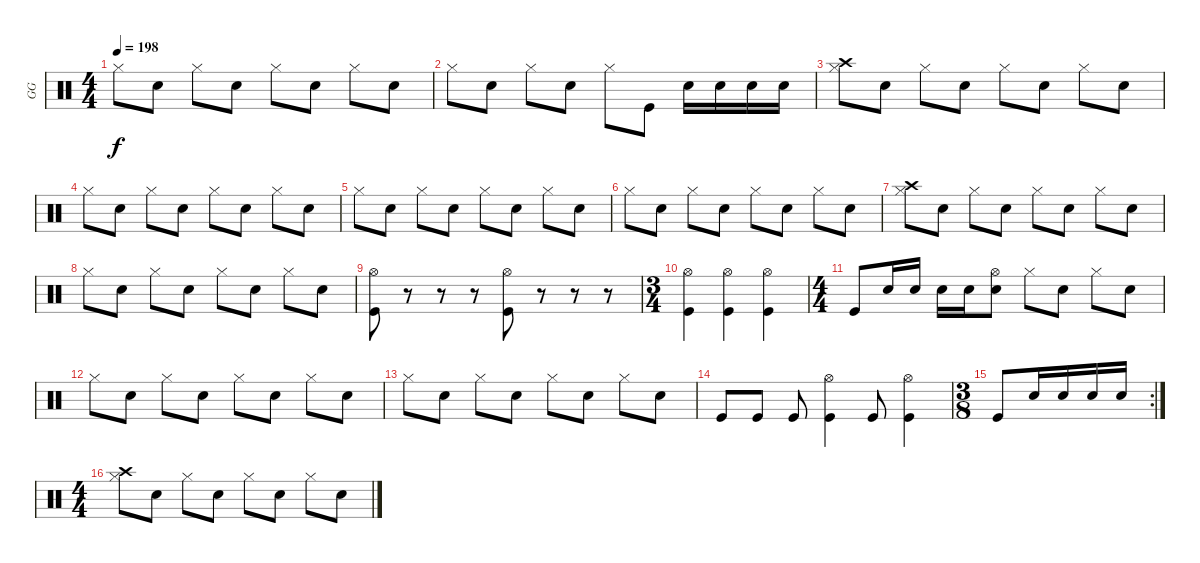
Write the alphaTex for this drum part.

\track ("GG" "GG") {instrument percussion}
\staff {score}
\articulation defaults
\ts (4 4)
\tempo 198
\clef neutral
\ks c "Hi-Hat (closed)".8{dy f} "Snare (hit) 2".8 "Hi-Hat (closed)".8 "Snare (hit) 2".8 "Hi-Hat (closed)".8 "Snare (hit) 2".8 "Hi-Hat (closed)".8 "Snare (hit) 2".8
|
"Hi-Hat (closed)".8 "Snare (hit) 2".8 "Hi-Hat (closed)".8 "Snare (hit) 2".8 "Hi-Hat (closed)".8 "Kick (hit)".8 "Snare (hit) 2".16 "Snare (hit) 2".16 "Snare (hit) 2".16 "Snare (hit) 2".16 |
("Crash high (hit)" "Hi-Hat (closed)").8 "Snare (hit) 2".8 "Hi-Hat (closed)".8 "Snare (hit) 2".8 "Hi-Hat (closed)".8 "Snare (hit) 2".8 "Hi-Hat (closed)".8 "Snare (hit) 2".8 |
"Hi-Hat (closed)".8 "Snare (hit) 2".8 "Hi-Hat (closed)".8 "Snare (hit) 2".8 "Hi-Hat (closed)".8 "Snare (hit) 2".8 "Hi-Hat (closed)".8 "Snare (hit) 2".8 |
"Hi-Hat (closed)".8 "Snare (hit) 2".8 "Hi-Hat (closed)".8 "Snare (hit) 2".8 "Hi-Hat (closed)".8 "Snare (hit) 2".8 "Hi-Hat (closed)".8 "Snare (hit) 2".8 |
"Hi-Hat (closed)".8 "Snare (hit) 2".8 "Hi-Hat (closed)".8 "Snare (hit) 2".8 "Hi-Hat (closed)".8 "Snare (hit) 2".8 "Hi-Hat (closed)".8 "Snare (hit) 2".8 |
("Crash high (hit)" "Hi-Hat (closed)").8 "Snare (hit) 2".8 "Hi-Hat (closed)".8 "Snare (hit) 2".8 "Hi-Hat (closed)".8 "Snare (hit) 2".8 "Hi-Hat (closed)".8 "Snare (hit) 2".8 |
"Hi-Hat (closed)".8 "Snare (hit) 2".8 "Hi-Hat (closed)".8 "Snare (hit) 2".8 "Hi-Hat (closed)".8 "Snare (hit) 2".8 "Hi-Hat (closed)".8 "Snare (hit) 2".8 |
("Kick (hit)" "Hi-Hat (open)").8 r.8 r.8 r.8 ("Kick (hit)" "Hi-Hat (open)").8 r.8 r.8 r.8 |
\ts (3 4)
("Kick (hit)" "Hi-Hat (open)").4 ("Kick (hit)" "Hi-Hat (open)").4 ("Kick (hit)" "Hi-Hat (open)").4 |
\ts (4 4)
"Kick (hit)".8 "Snare (hit) 2".16 "Snare (hit) 2".16 "Snare (hit) 2".16 "Snare (hit) 2".16 ("Hi-Hat (open)" "Snare (hit) 2").8 "Hi-Hat (closed)".8 "Snare (hit) 2".8 "Hi-Hat (closed)".8 "Snare (hit) 2".8 |
"Hi-Hat (closed)".8 "Snare (hit) 2".8 "Hi-Hat (closed)".8 "Snare (hit) 2".8 "Hi-Hat (closed)".8 "Snare (hit) 2".8 "Hi-Hat (closed)".8 "Snare (hit) 2".8 |
"Hi-Hat (closed)".8 "Snare (hit) 2".8 "Hi-Hat (closed)".8 "Snare (hit) 2".8 "Hi-Hat (closed)".8 "Snare (hit) 2".8 "Hi-Hat (closed)".8 "Snare (hit) 2".8 |
"Kick (hit)".8 "Kick (hit)".8 "Kick (hit)".8 ("Hi-Hat (open)" "Kick (hit)").4 "Kick (hit)".8 ("Hi-Hat (open)" "Kick (hit)").4 |
\rc 2
\ts (3 8)
"Kick (hit)".8 "Snare (hit) 2".16 "Snare (hit) 2".16 "Snare (hit) 2".16 "Snare (hit) 2".16 |
\ts (4 4)
("Crash high (hit)" "Hi-Hat (closed)").8 "Snare (hit) 2".8 "Hi-Hat (closed)".8 "Snare (hit) 2".8 "Hi-Hat (closed)".8 "Snare (hit) 2".8 "Hi-Hat (closed)".8 "Snare (hit) 2".8
